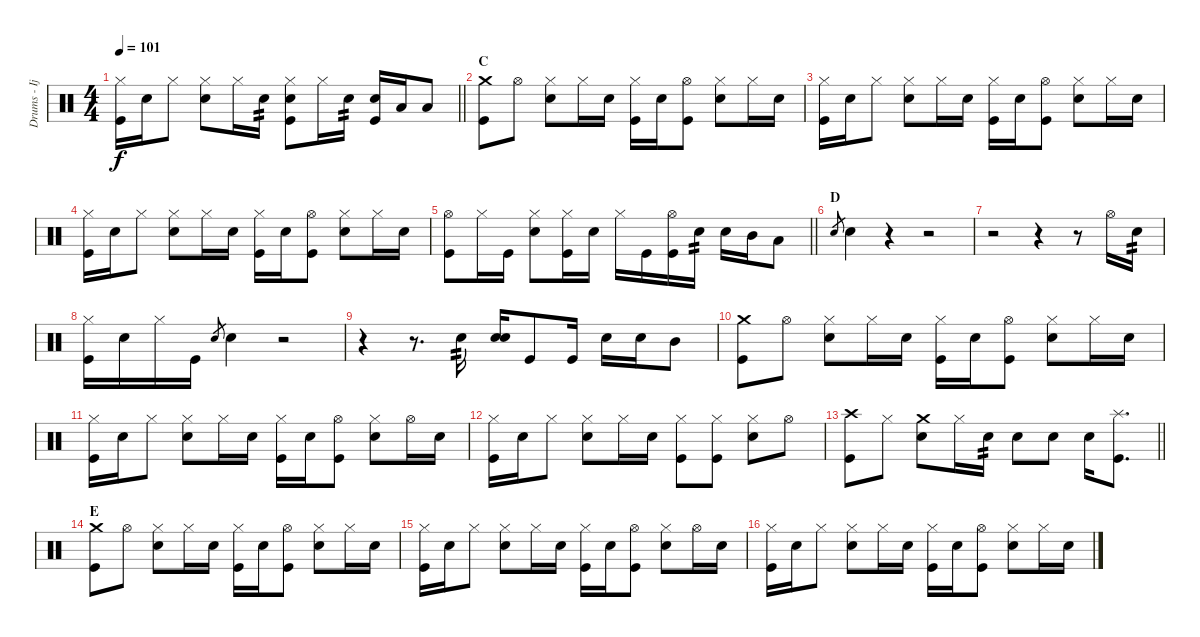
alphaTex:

\track ("Drums - Ijichi" "Drums - Ij") {instrument percussion}
\staff {score}
\articulation defaults
\ts (4 4)
\tempo 101
\clef neutral
\barLineRight lightlight
\ks c
("Hi-Hat (closed)" "Kick (hit)").16{dy f} "Electric Snare (hit)".16 "Hi-Hat (closed)".8 ("Hi-Hat (closed)" "Electric Snare (hit)").8 "Hi-Hat (closed)".16 "Electric Snare (hit)".16{tp 2} ("Hi-Hat (closed)" "Electric Snare (hit)" "Kick (hit)").8 "Hi-Hat (closed)".16 "Electric Snare (hit)".16{tp 2} ("Electric Snare (hit)" "Kick (hit)").16 "Low Tom (hit)".16 "Low Tom (hit)".8 |
\section ("" "C")
("Crash medium (hit)" "Kick (hit)").8 "Hi-Hat (open)".8 ("Hi-Hat (closed)" "Electric Snare (hit)").8 "Hi-Hat (closed)".16 "Electric Snare (hit)".16 ("Hi-Hat (closed)" "Kick (hit)").16 "Electric Snare (hit)".16 ("Hi-Hat (open)" "Kick (hit)").8 ("Hi-Hat (closed)" "Electric Snare (hit)").8 "Hi-Hat (closed)".16 "Electric Snare (hit)".16 |
("Hi-Hat (closed)" "Kick (hit)").16 "Electric Snare (hit)".16 "Hi-Hat (closed)".8 ("Hi-Hat (closed)" "Electric Snare (hit)").8 "Hi-Hat (closed)".16 "Electric Snare (hit)".16 ("Hi-Hat (closed)" "Kick (hit)").16 "Electric Snare (hit)".16 ("Hi-Hat (open)" "Kick (hit)").8 ("Hi-Hat (closed)" "Electric Snare (hit)").8 "Hi-Hat (closed)".16 "Electric Snare (hit)".16 |
("Hi-Hat (closed)" "Kick (hit)").16 "Electric Snare (hit)".16 "Hi-Hat (closed)".8 ("Hi-Hat (closed)" "Electric Snare (hit)").8 "Hi-Hat (closed)".16 "Electric Snare (hit)".16 ("Hi-Hat (closed)" "Kick (hit)").16 "Electric Snare (hit)".16 ("Hi-Hat (open)" "Kick (hit)").8 ("Hi-Hat (closed)" "Electric Snare (hit)").8 "Hi-Hat (closed)".16 "Electric Snare (hit)".16 |
\barLineRight lightlight
("Hi-Hat (open)" "Kick (hit)").8 "Hi-Hat (closed)".16 "Kick (hit)".16 ("Hi-Hat (closed)" "Electric Snare (hit)").8 ("Hi-Hat (closed)" "Kick (hit)").16 "Electric Snare (hit)".16 "Hi-Hat (closed)".16 "Kick (hit)".16 ("Hi-Hat (open)" "Kick (hit)").16 "Electric Snare (hit)".16{tp 2} "Electric Snare (hit)".16 "Mid Tom (hit)".16 "Low Tom (hit)".8 |
\section ("" "D")
"Electric Snare (hit)".8{gr} "Electric Snare (hit)".4 r.4 r.2 |
r.2 r.4 r.8 "Hi-Hat (open)".16 "Electric Snare (hit)".16{tp 2} |
("Hi-Hat (closed)" "Kick (hit)").16 "Electric Snare (hit)".16 "Hi-Hat (closed)".16 "Kick (hit)".16 "Electric Snare (hit)".8{gr} "Electric Snare (hit)".4 r.2 |
r.4 r.8{d} "Electric Snare (hit)".16{tp 2} ("Electric Snare (hit)" "Electric Snare (hit)").16 "Kick (hit)".8 "Kick (hit)".16 "Electric Snare (hit)".16 "Electric Snare (hit)".16 "Mid Tom (hit)".8 |
("Crash medium (hit)" "Kick (hit)").8 "Hi-Hat (open)".8 ("Hi-Hat (closed)" "Electric Snare (hit)").8 "Hi-Hat (closed)".16 "Electric Snare (hit)".16 ("Hi-Hat (closed)" "Kick (hit)").16 "Electric Snare (hit)".16 ("Hi-Hat (open)" "Kick (hit)").8 ("Hi-Hat (closed)" "Electric Snare (hit)").8 "Hi-Hat (closed)".16 "Electric Snare (hit)".16 |
("Hi-Hat (closed)" "Kick (hit)").16 "Electric Snare (hit)".16 "Hi-Hat (closed)".8 ("Hi-Hat (closed)" "Electric Snare (hit)").8 "Hi-Hat (closed)".16 "Electric Snare (hit)".16 ("Hi-Hat (closed)" "Kick (hit)").16 "Electric Snare (hit)".16 ("Hi-Hat (open)" "Kick (hit)").8 ("Hi-Hat (closed)" "Electric Snare (hit)").8 "Hi-Hat (open)".16 "Electric Snare (hit)".16 |
("Hi-Hat (closed)" "Kick (hit)").16 "Electric Snare (hit)".16 "Hi-Hat (closed)".8 ("Hi-Hat (closed)" "Electric Snare (hit)").8 "Hi-Hat (closed)".16 "Electric Snare (hit)".16 ("Hi-Hat (closed)" "Kick (hit)").8 ("Hi-Hat (closed)" "Kick (hit)").8 ("Hi-Hat (closed)" "Electric Snare (hit)").8 "Hi-Hat (open)".8 |
\barLineRight lightlight
("Crash high (hit)" "Kick (hit)").8 "Hi-Hat (closed)".8 ("Crash medium (hit)" "Electric Snare (hit)").8 "Hi-Hat (closed)".16 "Electric Snare (hit)".16{tp 2} "Electric Snare (hit)".8 "Electric Snare (hit)".8 "Electric Snare (hit)".16 ("Splash (hit)" "Kick (hit)").8{d} |
\section ("" "E")
("Crash medium (hit)" "Kick (hit)").8 "Hi-Hat (open)".8 ("Hi-Hat (closed)" "Electric Snare (hit)").8 "Hi-Hat (closed)".16 "Electric Snare (hit)".16 ("Hi-Hat (closed)" "Kick (hit)").16 "Electric Snare (hit)".16 ("Hi-Hat (open)" "Kick (hit)").8 ("Hi-Hat (closed)" "Electric Snare (hit)").8 "Hi-Hat (closed)".16 "Electric Snare (hit)".16 |
("Hi-Hat (closed)" "Kick (hit)").16 "Electric Snare (hit)".16 "Hi-Hat (closed)".8 ("Hi-Hat (closed)" "Electric Snare (hit)").8 "Hi-Hat (closed)".16 "Electric Snare (hit)".16 ("Hi-Hat (closed)" "Kick (hit)").16 "Electric Snare (hit)".16 ("Hi-Hat (open)" "Kick (hit)").8 ("Hi-Hat (closed)" "Electric Snare (hit)").8 "Hi-Hat (open)".16 "Electric Snare (hit)".16 |
("Hi-Hat (closed)" "Kick (hit)").16 "Electric Snare (hit)".16 "Hi-Hat (closed)".8 ("Hi-Hat (closed)" "Electric Snare (hit)").8 "Hi-Hat (closed)".16 "Electric Snare (hit)".16 ("Hi-Hat (closed)" "Kick (hit)").16 "Electric Snare (hit)".16 ("Hi-Hat (open)" "Kick (hit)").8 ("Hi-Hat (closed)" "Electric Snare (hit)").8 "Hi-Hat (closed)".16 "Electric Snare (hit)".16
